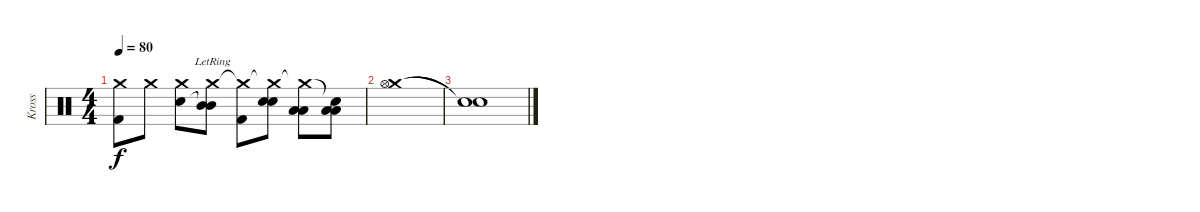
\track ("Kross" "Kross") {instrument percussion}
\staff {score}
\articulation defaults
\ts (4 4)
\tempo 80
\clef neutral
\ks c
("Crash medium (hit)" "Kick (hit) 2").8{dy f} "Crash medium (hit)".8 ("Crash medium (hit)" "Snare (hit) 2").8 ("Crash medium (hit)"{lr} "Mid Tom (hit)"{t} "Mid Tom (hit)"{t}).8 ("Crash medium (hit)"{t} "Kick (hit) 2").8 ("Crash medium (hit)"{t} "Snare (hit) 2" "Snare (hit) 2").8 ("Crash medium (hit)"{t} "Low Tom (hit)" "Low Tom (hit)").8 ("Snare (hit)"{t} "Low Tom (hit)" "Low Tom (hit)").8 |
("Crash medium (hit)" "Hi-Hat (open)").1 |
("Snare (hit)"{t} "Snare (hit)"{t}).1
